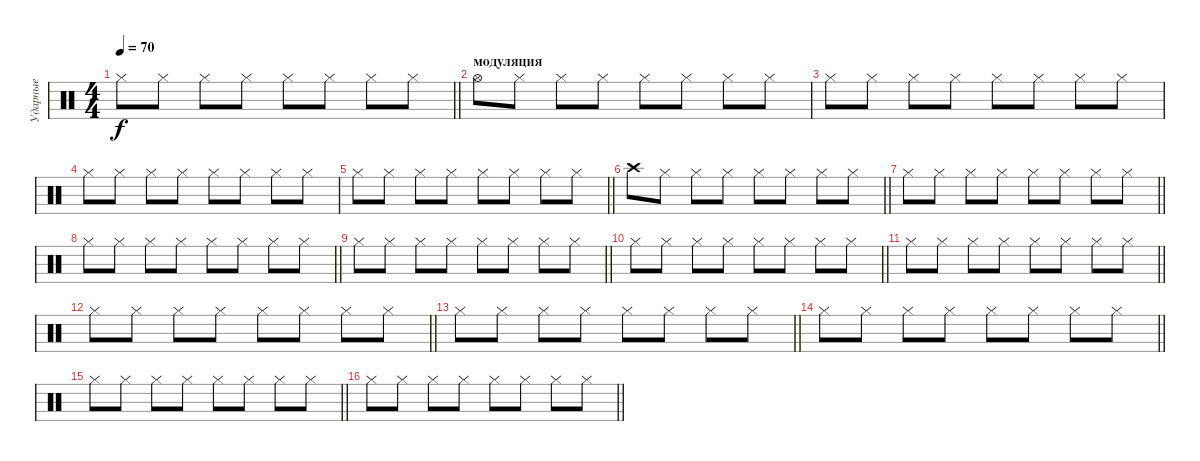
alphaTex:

\track ("Ударные" "Ударные") {instrument percussion}
\staff {score}
\articulation defaults
\ts (4 4)
\tempo 70
\clef neutral
\barLineRight lightlight
\ks c "Hi-Hat (closed)".8{dy f} "Hi-Hat (closed)".8 "Hi-Hat (closed)".8 "Hi-Hat (closed)".8 "Hi-Hat (closed)".8 "Hi-Hat (closed)".8 "Hi-Hat (closed)".8 "Hi-Hat (closed)".8
|
\section ("" "модуляция")
"Hi-Hat (open)".8 "Hi-Hat (closed)".8 "Hi-Hat (closed)".8 "Hi-Hat (closed)".8 "Hi-Hat (closed)".8 "Hi-Hat (closed)".8 "Hi-Hat (closed)".8 "Hi-Hat (closed)".8 |
"Hi-Hat (closed)".8 "Hi-Hat (closed)".8 "Hi-Hat (closed)".8 "Hi-Hat (closed)".8 "Hi-Hat (closed)".8 "Hi-Hat (closed)".8 "Hi-Hat (closed)".8 "Hi-Hat (closed)".8 |
"Hi-Hat (closed)".8 "Hi-Hat (closed)".8 "Hi-Hat (closed)".8 "Hi-Hat (closed)".8 "Hi-Hat (closed)".8 "Hi-Hat (closed)".8 "Hi-Hat (closed)".8 "Hi-Hat (closed)".8 |
\barLineRight lightlight "Hi-Hat (closed)".8 "Hi-Hat (closed)".8 "Hi-Hat (closed)".8 "Hi-Hat (closed)".8 "Hi-Hat (closed)".8 "Hi-Hat (closed)".8 "Hi-Hat (closed)".8 "Hi-Hat (closed)".8
|
\barLineRight lightlight "Crash high (hit)".8 "Hi-Hat (closed)".8 "Hi-Hat (closed)".8 "Hi-Hat (closed)".8 "Hi-Hat (closed)".8 "Hi-Hat (closed)".8 "Hi-Hat (closed)".8 "Hi-Hat (closed)".8
|
\barLineRight lightlight "Hi-Hat (closed)".8 "Hi-Hat (closed)".8 "Hi-Hat (closed)".8 "Hi-Hat (closed)".8 "Hi-Hat (closed)".8 "Hi-Hat (closed)".8 "Hi-Hat (closed)".8 "Hi-Hat (closed)".8
|
\barLineRight lightlight "Hi-Hat (closed)".8 "Hi-Hat (closed)".8 "Hi-Hat (closed)".8 "Hi-Hat (closed)".8 "Hi-Hat (closed)".8 "Hi-Hat (closed)".8 "Hi-Hat (closed)".8 "Hi-Hat (closed)".8
|
\barLineRight lightlight "Hi-Hat (closed)".8 "Hi-Hat (closed)".8 "Hi-Hat (closed)".8 "Hi-Hat (closed)".8 "Hi-Hat (closed)".8 "Hi-Hat (closed)".8 "Hi-Hat (closed)".8 "Hi-Hat (closed)".8
|
\barLineRight lightlight "Hi-Hat (closed)".8 "Hi-Hat (closed)".8 "Hi-Hat (closed)".8 "Hi-Hat (closed)".8 "Hi-Hat (closed)".8 "Hi-Hat (closed)".8 "Hi-Hat (closed)".8 "Hi-Hat (closed)".8
|
\barLineRight lightlight "Hi-Hat (closed)".8 "Hi-Hat (closed)".8 "Hi-Hat (closed)".8 "Hi-Hat (closed)".8 "Hi-Hat (closed)".8 "Hi-Hat (closed)".8 "Hi-Hat (closed)".8 "Hi-Hat (closed)".8
|
\barLineRight lightlight "Hi-Hat (closed)".8 "Hi-Hat (closed)".8 "Hi-Hat (closed)".8 "Hi-Hat (closed)".8 "Hi-Hat (closed)".8 "Hi-Hat (closed)".8 "Hi-Hat (closed)".8 "Hi-Hat (closed)".8
|
\barLineRight lightlight "Hi-Hat (closed)".8 "Hi-Hat (closed)".8 "Hi-Hat (closed)".8 "Hi-Hat (closed)".8 "Hi-Hat (closed)".8 "Hi-Hat (closed)".8 "Hi-Hat (closed)".8 "Hi-Hat (closed)".8
|
\barLineRight lightlight "Hi-Hat (closed)".8 "Hi-Hat (closed)".8 "Hi-Hat (closed)".8 "Hi-Hat (closed)".8 "Hi-Hat (closed)".8 "Hi-Hat (closed)".8 "Hi-Hat (closed)".8 "Hi-Hat (closed)".8
|
\barLineRight lightlight "Hi-Hat (closed)".8 "Hi-Hat (closed)".8 "Hi-Hat (closed)".8 "Hi-Hat (closed)".8 "Hi-Hat (closed)".8 "Hi-Hat (closed)".8 "Hi-Hat (closed)".8 "Hi-Hat (closed)".8
|
\barLineRight lightlight "Hi-Hat (closed)".8 "Hi-Hat (closed)".8 "Hi-Hat (closed)".8 "Hi-Hat (closed)".8 "Hi-Hat (closed)".8 "Hi-Hat (closed)".8 "Hi-Hat (closed)".8 "Hi-Hat (closed)".8
